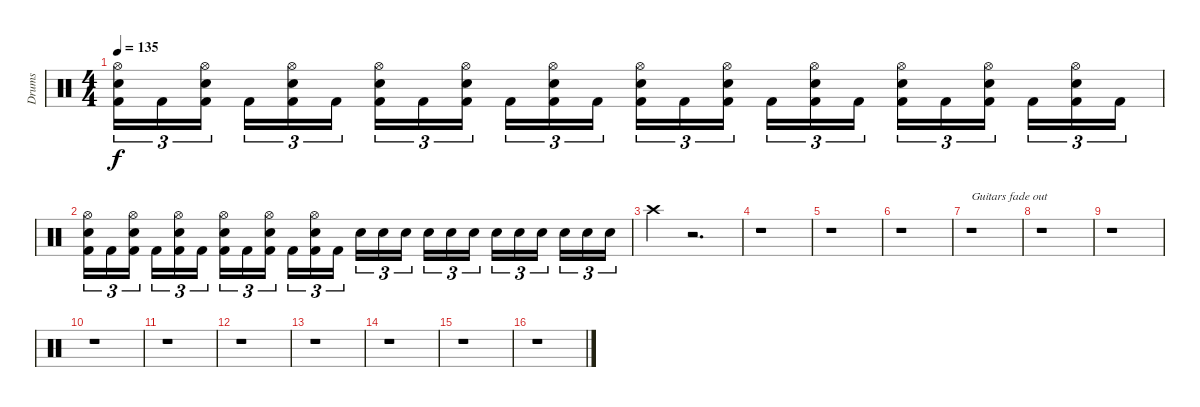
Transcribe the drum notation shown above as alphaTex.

\track ("Drums" "Drums") {instrument percussion}
\staff {score}
\articulation defaults
\ts (4 4)
\tempo 135
\clef neutral
\ks c
("Hi-Hat (open)" "Electric Snare (hit)" "Kick (hit) 2").16{tu (3 2) dy f} "Kick (hit) 2".16{tu (3 2)} ("Hi-Hat (open)" "Electric Snare (hit)" "Kick (hit) 2").16{tu (3 2)} "Kick (hit) 2".16{tu (3 2)} ("Hi-Hat (open)" "Electric Snare (hit)" "Kick (hit) 2").16{tu (3 2)} "Kick (hit) 2".16{tu (3 2)} ("Hi-Hat (open)" "Electric Snare (hit)" "Kick (hit) 2").16{tu (3 2)} "Kick (hit) 2".16{tu (3 2)} ("Hi-Hat (open)" "Electric Snare (hit)" "Kick (hit) 2").16{tu (3 2)} "Kick (hit) 2".16{tu (3 2)} ("Hi-Hat (open)" "Electric Snare (hit)" "Kick (hit) 2").16{tu (3 2)} "Kick (hit) 2".16{tu (3 2)} ("Hi-Hat (open)" "Electric Snare (hit)" "Kick (hit) 2").16{tu (3 2)} "Kick (hit) 2".16{tu (3 2)} ("Hi-Hat (open)" "Electric Snare (hit)" "Kick (hit) 2").16{tu (3 2)} "Kick (hit) 2".16{tu (3 2)} ("Hi-Hat (open)" "Electric Snare (hit)" "Kick (hit) 2").16{tu (3 2)} "Kick (hit) 2".16{tu (3 2)} ("Hi-Hat (open)" "Electric Snare (hit)" "Kick (hit) 2").16{tu (3 2)} "Kick (hit) 2".16{tu (3 2)} ("Hi-Hat (open)" "Electric Snare (hit)" "Kick (hit) 2").16{tu (3 2)} "Kick (hit) 2".16{tu (3 2)} ("Hi-Hat (open)" "Electric Snare (hit)" "Kick (hit) 2").16{tu (3 2)} "Kick (hit) 2".16{tu (3 2)} |
("Hi-Hat (open)" "Electric Snare (hit)" "Kick (hit) 2").16{tu (3 2)} "Kick (hit) 2".16{tu (3 2)} ("Hi-Hat (open)" "Electric Snare (hit)" "Kick (hit) 2").16{tu (3 2)} "Kick (hit) 2".16{tu (3 2)} ("Hi-Hat (open)" "Electric Snare (hit)" "Kick (hit) 2").16{tu (3 2)} "Kick (hit) 2".16{tu (3 2)} ("Hi-Hat (open)" "Electric Snare (hit)" "Kick (hit) 2").16{tu (3 2)} "Kick (hit) 2".16{tu (3 2)} ("Hi-Hat (open)" "Electric Snare (hit)" "Kick (hit) 2").16{tu (3 2)} "Kick (hit) 2".16{tu (3 2)} ("Hi-Hat (open)" "Electric Snare (hit)" "Kick (hit) 2").16{tu (3 2)} "Kick (hit) 2".16{tu (3 2)} "Electric Snare (hit)".16{tu (3 2)} "Electric Snare (hit)".16{tu (3 2)} "Electric Snare (hit)".16{tu (3 2)} "Electric Snare (hit)".16{tu (3 2)} "Electric Snare (hit)".16{tu (3 2)} "Electric Snare (hit)".16{tu (3 2)} "Electric Snare (hit)".16{tu (3 2)} "Electric Snare (hit)".16{tu (3 2)} "Electric Snare (hit)".16{tu (3 2)} "Electric Snare (hit)".16{tu (3 2)} "Electric Snare (hit)".16{tu (3 2)} "Electric Snare (hit)".16{tu (3 2)} |
"Crash high (hit)".4 r.2{d} |
r.1 |
r.1 |
r.1 |
r.1{txt "Guitars fade out"} |
r.1 |
r.1 |
r.1 |
r.1 |
r.1 |
r.1 |
r.1 |
r.1 |
r.1
